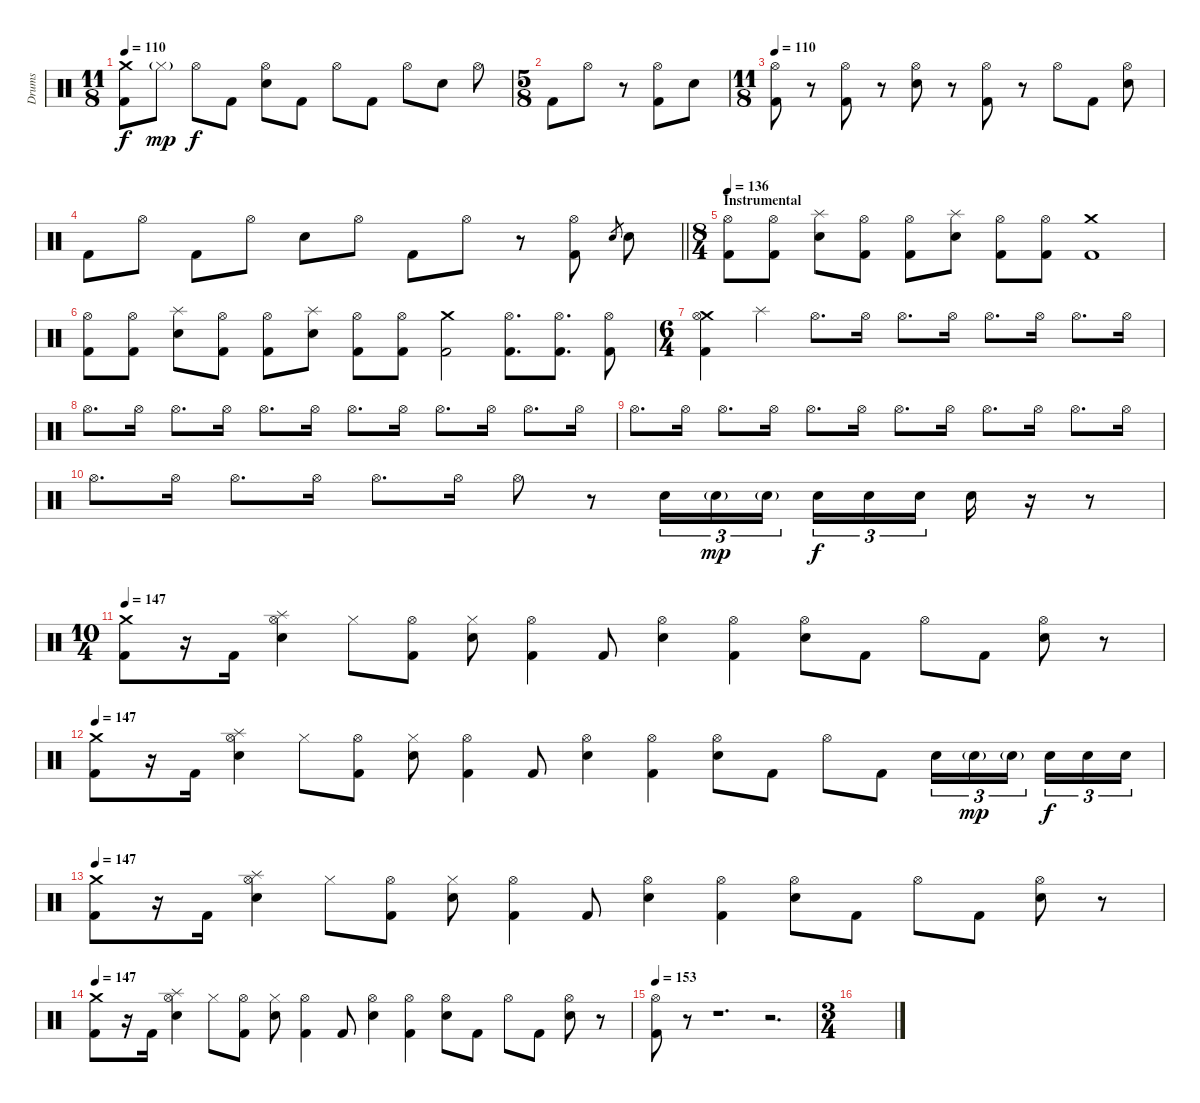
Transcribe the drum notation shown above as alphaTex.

\track ("Drums" "Drums") {instrument percussion}
\staff {score}
\articulation defaults
\ts (11 8)
\tempo 110
\clef neutral
\ks c
("Crash medium (hit)" "Kick (hit) 2").8{dy f} "Hi-Hat (closed)"{g}.8{dy mp} "Hi-Hat (open)".8{dy f} "Kick (hit) 2".8 ("Hi-Hat (open)" "Electric Snare (hit)").8 "Kick (hit) 2".8 "Hi-Hat (open)".8 "Kick (hit) 2".8 "Hi-Hat (open)".8 "Electric Snare (hit)".8 "Hi-Hat (open)".8 |
\ts (5 8)
"Kick (hit) 2".8 "Hi-Hat (open)".8 r.8 ("Hi-Hat (open)" "Kick (hit) 2").8 "Electric Snare (hit)".8 |
\ts (11 8)
\tempo 110
("Hi-Hat (open)" "Kick (hit) 2").8 r.8 ("Hi-Hat (open)" "Kick (hit) 2").8 r.8 ("Hi-Hat (open)" "Electric Snare (hit)").8 r.8 ("Hi-Hat (open)" "Kick (hit) 2").8 r.8 "Hi-Hat (open)".8 "Kick (hit) 2".8 ("Hi-Hat (open)" "Electric Snare (hit)").8 |
\barLineRight lightlight "Kick (hit) 2".8 "Hi-Hat (open)".8 "Kick (hit) 2".8 "Hi-Hat (open)".8 "Electric Snare (hit)".8 "Hi-Hat (open)".8 "Kick (hit) 2".8 "Hi-Hat (open)".8
r.8 ("Hi-Hat (open)" "Kick (hit) 2").8 "Electric Snare (hit)".8{gr} "Electric Snare (hit)".8 |
\ts (8 4)
\section ("" "Instrumental")
\tempo 136
("Hi-Hat (open)" "Kick (hit) 2").8 ("Hi-Hat (open)" "Kick (hit) 2").8 ("Splash (hit)" "Electric Snare (hit)").8 ("Hi-Hat (open)" "Kick (hit) 2").8 ("Hi-Hat (open)" "Kick (hit) 2").8 ("Splash (hit)" "Electric Snare (hit)").8 ("Hi-Hat (open)" "Kick (hit) 2").8 ("Hi-Hat (open)" "Kick (hit) 2").8 ("Crash medium (hit)" "Kick (hit) 2").1 |
("Hi-Hat (open)" "Kick (hit) 2").8 ("Hi-Hat (open)" "Kick (hit) 2").8 ("Splash (hit)" "Electric Snare (hit)").8 ("Hi-Hat (open)" "Kick (hit) 2").8 ("Hi-Hat (open)" "Kick (hit) 2").8 ("Splash (hit)" "Electric Snare (hit)").8 ("Hi-Hat (open)" "Kick (hit) 2").8 ("Hi-Hat (open)" "Kick (hit) 2").8 ("Crash medium (hit)" "Kick (hit) 2").2 ("Hi-Hat (open)" "Kick (hit) 2").8{d} ("Hi-Hat (open)" "Kick (hit) 2").8{d} ("Hi-Hat (open)" "Kick (hit) 2").8 |
\ts (6 4)
("Crash medium (hit)" "Hi-Hat (open)" "Kick (hit) 2").4 "Splash (hit)".4 "Hi-Hat (open)".8{d} "Hi-Hat (open)".16 "Hi-Hat (open)".8{d} "Hi-Hat (open)".16 "Hi-Hat (open)".8{d} "Hi-Hat (open)".16 "Hi-Hat (open)".8{d} "Hi-Hat (open)".16 |
"Hi-Hat (open)".8{d} "Hi-Hat (open)".16 "Hi-Hat (open)".8{d} "Hi-Hat (open)".16 "Hi-Hat (open)".8{d} "Hi-Hat (open)".16 "Hi-Hat (open)".8{d} "Hi-Hat (open)".16 "Hi-Hat (open)".8{d} "Hi-Hat (open)".16 "Hi-Hat (open)".8{d} "Hi-Hat (open)".16 |
"Hi-Hat (open)".8{d} "Hi-Hat (open)".16 "Hi-Hat (open)".8{d} "Hi-Hat (open)".16 "Hi-Hat (open)".8{d} "Hi-Hat (open)".16 "Hi-Hat (open)".8{d} "Hi-Hat (open)".16 "Hi-Hat (open)".8{d} "Hi-Hat (open)".16 "Hi-Hat (open)".8{d} "Hi-Hat (open)".16 |
"Hi-Hat (open)".8{d} "Hi-Hat (open)".16 "Hi-Hat (open)".8{d} "Hi-Hat (open)".16 "Hi-Hat (open)".8{d} "Hi-Hat (open)".16 "Hi-Hat (open)".8 r.8 "Electric Snare (hit)".16{tu (3 2)} "Electric Snare (hit)"{g}.16{tu (3 2) dy mp} "Electric Snare (hit)"{g}.16{tu (3 2) beam splitsecondary} "Electric Snare (hit)".16{tu (3 2) dy f} "Electric Snare (hit)".16{tu (3 2)} "Electric Snare (hit)".16{tu (3 2) beam splitsecondary} "Electric Snare (hit)".16 r.16 r.8 |
\ts (10 4)
\tempo 147
("Crash medium (hit)" "Kick (hit) 2").8 r.16 "Kick (hit) 2".16 ("Splash (hit)" "Hi-Hat (open)" "Electric Snare (hit)").4 "Hi-Hat (closed)".8 ("Hi-Hat (open)" "Kick (hit) 2").8 ("Hi-Hat (closed)" "Electric Snare (hit)").8 ("Hi-Hat (open)" "Kick (hit) 2").4 "Kick (hit) 2".8 ("Hi-Hat (open)" "Electric Snare (hit)").4 ("Hi-Hat (open)" "Kick (hit) 2").4 ("Hi-Hat (open)" "Electric Snare (hit)").8 "Kick (hit) 2".8 "Hi-Hat (open)".8 "Kick (hit) 2".8 ("Hi-Hat (open)" "Electric Snare (hit)").8 r.8 |
\tempo 147
("Crash medium (hit)" "Kick (hit) 2").8 r.16 "Kick (hit) 2".16 ("Splash (hit)" "Hi-Hat (open)" "Electric Snare (hit)").4 "Hi-Hat (closed)".8 ("Hi-Hat (open)" "Kick (hit) 2").8 ("Hi-Hat (closed)" "Electric Snare (hit)").8 ("Hi-Hat (open)" "Kick (hit) 2").4 "Kick (hit) 2".8 ("Hi-Hat (open)" "Electric Snare (hit)").4 ("Hi-Hat (open)" "Kick (hit) 2").4 ("Hi-Hat (open)" "Electric Snare (hit)").8 "Kick (hit) 2".8 "Hi-Hat (open)".8 "Kick (hit) 2".8 "Electric Snare (hit)".16{tu (3 2)} "Electric Snare (hit)"{g}.16{tu (3 2) dy mp} "Electric Snare (hit)"{g}.16{tu (3 2) beam splitsecondary} "Electric Snare (hit)".16{tu (3 2) dy f} "Electric Snare (hit)".16{tu (3 2)} "Electric Snare (hit)".16{tu (3 2)} |
\tempo 147
("Crash medium (hit)" "Kick (hit) 2").8 r.16 "Kick (hit) 2".16 ("Splash (hit)" "Hi-Hat (open)" "Electric Snare (hit)").4 "Hi-Hat (closed)".8 ("Hi-Hat (open)" "Kick (hit) 2").8 ("Hi-Hat (closed)" "Electric Snare (hit)").8 ("Hi-Hat (open)" "Kick (hit) 2").4 "Kick (hit) 2".8 ("Hi-Hat (open)" "Electric Snare (hit)").4 ("Hi-Hat (open)" "Kick (hit) 2").4 ("Hi-Hat (open)" "Electric Snare (hit)").8 "Kick (hit) 2".8 "Hi-Hat (open)".8 "Kick (hit) 2".8 ("Hi-Hat (open)" "Electric Snare (hit)").8 r.8 |
\tempo 147
("Crash medium (hit)" "Kick (hit) 2").8 r.16 "Kick (hit) 2".16 ("Splash (hit)" "Hi-Hat (open)" "Electric Snare (hit)").4 "Hi-Hat (closed)".8 ("Hi-Hat (open)" "Kick (hit) 2").8 ("Hi-Hat (closed)" "Electric Snare (hit)").8 ("Hi-Hat (open)" "Kick (hit) 2").4 "Kick (hit) 2".8 ("Hi-Hat (open)" "Electric Snare (hit)").4 ("Hi-Hat (open)" "Kick (hit) 2").4 ("Hi-Hat (open)" "Electric Snare (hit)").8 "Kick (hit) 2".8 "Hi-Hat (open)".8 "Kick (hit) 2".8 ("Hi-Hat (open)" "Electric Snare (hit)").8 r.8 |
\tempo 153
("Hi-Hat (open)" "Kick (hit) 2").8 r.8 r.1{d} r.2{d} |
\ts (3 4)
